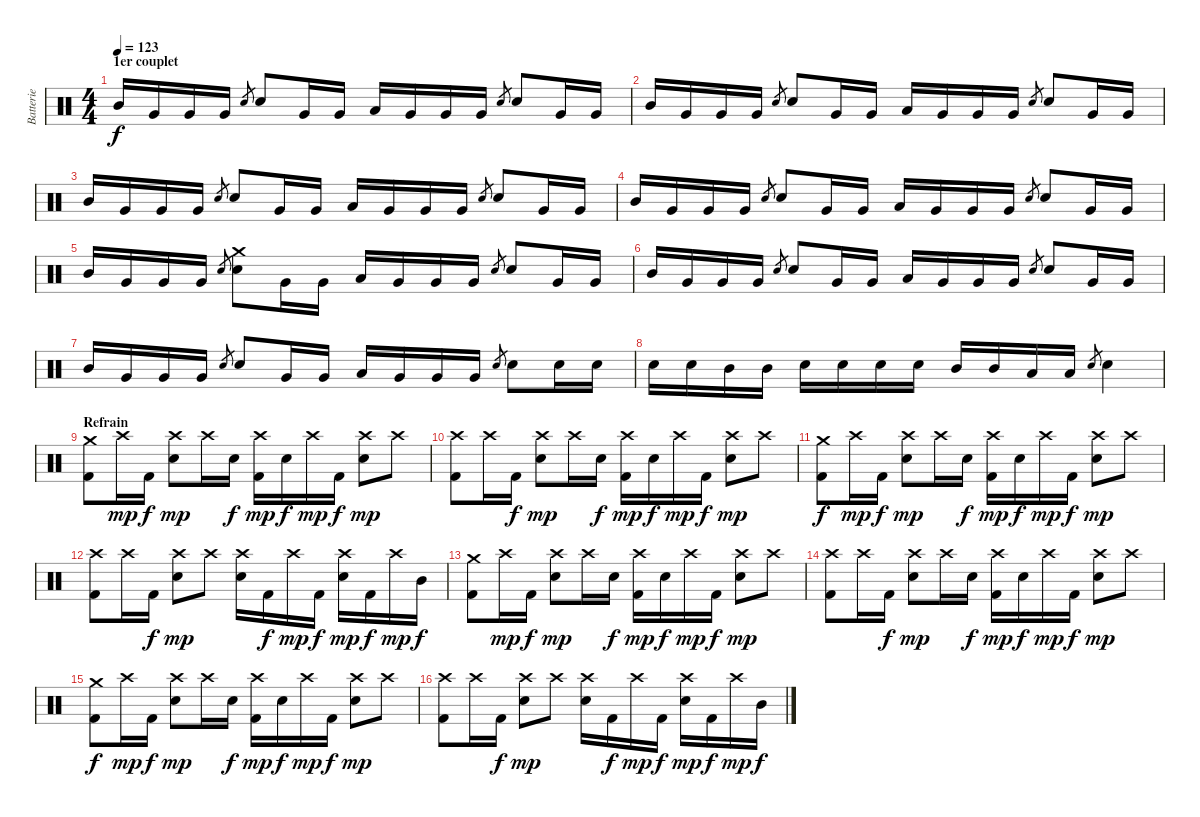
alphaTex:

\track ("Batterie" "Batterie") {instrument percussion}
\staff {score}
\articulation defaults
\ts (4 4)
\section ("" "1er couplet")
\tempo 123
\clef neutral
\ks c "Mid Tom (hit)".16{dy f} "Very Low Tom (hit)".16 "Very Low Tom (hit)".16 "Very Low Tom (hit)".16 "Snare (hit) 2".8{gr} "Snare (hit) 2".8 "Very Low Tom (hit)".16 "Very Low Tom (hit)".16 "Low Tom (hit)".16 "Very Low Tom (hit)".16 "Very Low Tom (hit)".16 "Very Low Tom (hit)".16 "Snare (hit) 2".8{gr} "Snare (hit) 2".8 "Very Low Tom (hit)".16 "Very Low Tom (hit)".16
|
"Mid Tom (hit)".16 "Very Low Tom (hit)".16 "Very Low Tom (hit)".16 "Very Low Tom (hit)".16 "Snare (hit) 2".8{gr} "Snare (hit) 2".8 "Very Low Tom (hit)".16 "Very Low Tom (hit)".16 "Low Tom (hit)".16 "Very Low Tom (hit)".16 "Very Low Tom (hit)".16 "Very Low Tom (hit)".16 "Snare (hit) 2".8{gr} "Snare (hit) 2".8 "Very Low Tom (hit)".16 "Very Low Tom (hit)".16 |
"Mid Tom (hit)".16 "Very Low Tom (hit)".16 "Very Low Tom (hit)".16 "Very Low Tom (hit)".16 "Snare (hit) 2".8{gr} "Snare (hit) 2".8 "Very Low Tom (hit)".16 "Very Low Tom (hit)".16 "Low Tom (hit)".16 "Very Low Tom (hit)".16 "Very Low Tom (hit)".16 "Very Low Tom (hit)".16 "Snare (hit) 2".8{gr} "Snare (hit) 2".8 "Very Low Tom (hit)".16 "Very Low Tom (hit)".16 |
"Mid Tom (hit)".16 "Very Low Tom (hit)".16 "Very Low Tom (hit)".16 "Very Low Tom (hit)".16 "Snare (hit) 2".8{gr} "Snare (hit) 2".8 "Very Low Tom (hit)".16 "Very Low Tom (hit)".16 "Low Tom (hit)".16 "Very Low Tom (hit)".16 "Very Low Tom (hit)".16 "Very Low Tom (hit)".16 "Snare (hit) 2".8{gr} "Snare (hit) 2".8 "Very Low Tom (hit)".16 "Very Low Tom (hit)".16 |
"Mid Tom (hit)".16 "Very Low Tom (hit)".16 "Very Low Tom (hit)".16 "Very Low Tom (hit)".16 "Snare (hit) 2".8{gr} ("Crash medium (hit)" "Snare (hit) 2").8 "Very Low Tom (hit)".16 "Very Low Tom (hit)".16 "Low Tom (hit)".16 "Very Low Tom (hit)".16 "Very Low Tom (hit)".16 "Very Low Tom (hit)".16 "Snare (hit) 2".8{gr} "Snare (hit) 2".8 "Very Low Tom (hit)".16 "Very Low Tom (hit)".16 |
"Mid Tom (hit)".16 "Very Low Tom (hit)".16 "Very Low Tom (hit)".16 "Very Low Tom (hit)".16 "Snare (hit) 2".8{gr} "Snare (hit) 2".8 "Very Low Tom (hit)".16 "Very Low Tom (hit)".16 "Low Tom (hit)".16 "Very Low Tom (hit)".16 "Very Low Tom (hit)".16 "Very Low Tom (hit)".16 "Snare (hit) 2".8{gr} "Snare (hit) 2".8 "Very Low Tom (hit)".16 "Very Low Tom (hit)".16 |
"Mid Tom (hit)".16 "Very Low Tom (hit)".16 "Very Low Tom (hit)".16 "Very Low Tom (hit)".16 "Snare (hit) 2".8{gr} "Snare (hit) 2".8 "Very Low Tom (hit)".16 "Very Low Tom (hit)".16 "Low Tom (hit)".16 "Very Low Tom (hit)".16 "Very Low Tom (hit)".16 "Very Low Tom (hit)".16 "Snare (hit) 2".8{gr} "Snare (hit) 2".8 "Snare (hit) 2".16 "Snare (hit) 2".16 |
"Snare (hit) 2".16 "Snare (hit) 2".16 "Mid Tom (hit)".16 "Mid Tom (hit)".16 "Snare (hit) 2".16 "Snare (hit) 2".16 "Snare (hit) 2".16 "Snare (hit) 2".16 "Mid Tom (hit)".16 "Mid Tom (hit)".16 "Low Tom (hit)".16 "Low Tom (hit)".16 "Snare (hit) 2".8{gr} "Snare (hit) 2".4 |
\section ("" "Refrain")
("Crash medium (hit)" "Kick (hit) 2").8 "Crash high (hit)".16{dy mp} "Kick (hit) 2".16{dy f} ("Crash high (hit)" "Snare (hit) 2").8{dy mp} "Crash high (hit)".16 "Snare (hit) 2".16{dy f} ("Crash high (hit)" "Kick (hit) 2").16{dy mp} "Snare (hit) 2".16{dy f} "Crash high (hit)".16{dy mp} "Kick (hit) 2".16{dy f} ("Crash high (hit)" "Snare (hit) 2").8{dy mp} "Crash high (hit)".8 |
("Crash high (hit)" "Kick (hit) 2").8 "Crash high (hit)".16 "Kick (hit) 2".16{dy f} ("Crash high (hit)" "Snare (hit) 2").8{dy mp} "Crash high (hit)".16 "Snare (hit) 2".16{dy f} ("Crash high (hit)" "Kick (hit) 2").16{dy mp} "Snare (hit) 2".16{dy f} "Crash high (hit)".16{dy mp} "Kick (hit) 2".16{dy f} ("Crash high (hit)" "Snare (hit) 2").8{dy mp} "Crash high (hit)".8 |
("Crash medium (hit)" "Kick (hit) 2").8{dy f} "Crash high (hit)".16{dy mp} "Kick (hit) 2".16{dy f} ("Crash high (hit)" "Snare (hit) 2").8{dy mp} "Crash high (hit)".16 "Snare (hit) 2".16{dy f} ("Crash high (hit)" "Kick (hit) 2").16{dy mp} "Snare (hit) 2".16{dy f} "Crash high (hit)".16{dy mp} "Kick (hit) 2".16{dy f} ("Crash high (hit)" "Snare (hit) 2").8{dy mp} "Crash high (hit)".8 |
("Crash high (hit)" "Kick (hit) 2").8 "Crash high (hit)".16 "Kick (hit) 2".16{dy f} ("Crash high (hit)" "Snare (hit) 2").8{dy mp} "Crash high (hit)".8 ("Crash high (hit)" "Snare (hit) 2").16 "Kick (hit) 2".16{dy f} "Crash high (hit)".16{dy mp} "Kick (hit) 2".16{dy f} ("Crash high (hit)" "Snare (hit) 2").16{dy mp} "Kick (hit) 2".16{dy f} "Crash high (hit)".16{dy mp} "Mid Tom (hit)".16{dy f} |
("Crash medium (hit)" "Kick (hit) 2").8 "Crash high (hit)".16{dy mp} "Kick (hit) 2".16{dy f} ("Crash high (hit)" "Snare (hit) 2").8{dy mp} "Crash high (hit)".16 "Snare (hit) 2".16{dy f} ("Crash high (hit)" "Kick (hit) 2").16{dy mp} "Snare (hit) 2".16{dy f} "Crash high (hit)".16{dy mp} "Kick (hit) 2".16{dy f} ("Crash high (hit)" "Snare (hit) 2").8{dy mp} "Crash high (hit)".8 |
("Crash high (hit)" "Kick (hit) 2").8 "Crash high (hit)".16 "Kick (hit) 2".16{dy f} ("Crash high (hit)" "Snare (hit) 2").8{dy mp} "Crash high (hit)".16 "Snare (hit) 2".16{dy f} ("Crash high (hit)" "Kick (hit) 2").16{dy mp} "Snare (hit) 2".16{dy f} "Crash high (hit)".16{dy mp} "Kick (hit) 2".16{dy f} ("Crash high (hit)" "Snare (hit) 2").8{dy mp} "Crash high (hit)".8 |
("Crash medium (hit)" "Kick (hit) 2").8{dy f} "Crash high (hit)".16{dy mp} "Kick (hit) 2".16{dy f} ("Crash high (hit)" "Snare (hit) 2").8{dy mp} "Crash high (hit)".16 "Snare (hit) 2".16{dy f} ("Crash high (hit)" "Kick (hit) 2").16{dy mp} "Snare (hit) 2".16{dy f} "Crash high (hit)".16{dy mp} "Kick (hit) 2".16{dy f} ("Crash high (hit)" "Snare (hit) 2").8{dy mp} "Crash high (hit)".8 |
("Crash high (hit)" "Kick (hit) 2").8 "Crash high (hit)".16 "Kick (hit) 2".16{dy f} ("Crash high (hit)" "Snare (hit) 2").8{dy mp} "Crash high (hit)".8 ("Crash high (hit)" "Snare (hit) 2").16 "Kick (hit) 2".16{dy f} "Crash high (hit)".16{dy mp} "Kick (hit) 2".16{dy f} ("Crash high (hit)" "Snare (hit) 2").16{dy mp} "Kick (hit) 2".16{dy f} "Crash high (hit)".16{dy mp} "Mid Tom (hit)".16{dy f}
